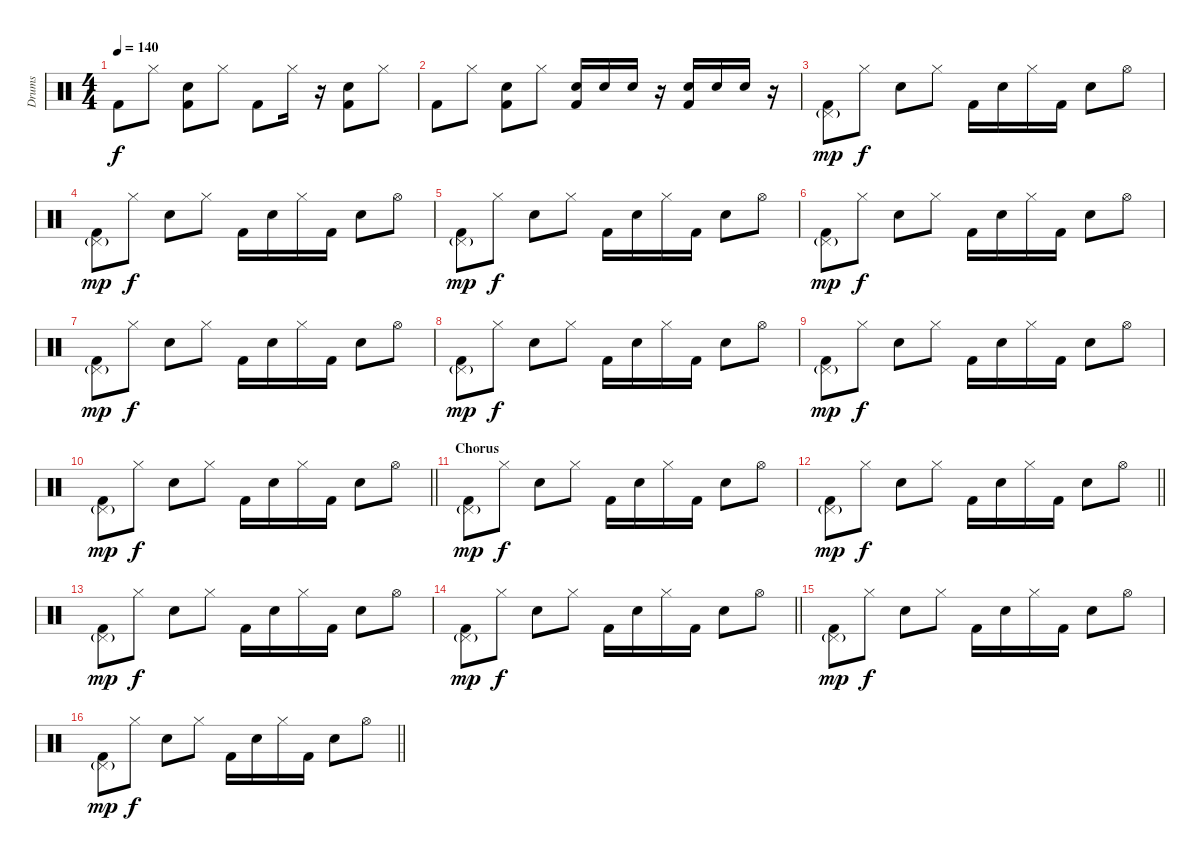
\track ("Drums" "Drums") {instrument percussion}
\staff {score}
\articulation defaults
\ts (4 4)
\tempo 140
\clef neutral
\ks c "Kick (hit) 2".8{dy f} "Hi-Hat (closed)".8
("Snare (hit) 2" "Kick (hit) 2").8 "Hi-Hat (closed)".8 "Kick (hit) 2".8 "Hi-Hat (closed)".16 r.16 ("Snare (hit) 2" "Kick (hit) 2").8 "Hi-Hat (closed)".8 |
"Kick (hit) 2".8 "Hi-Hat (closed)".8 ("Snare (hit) 2" "Kick (hit) 2").8 "Hi-Hat (closed)".8 ("Snare (hit) 2" "Kick (hit) 2").16 "Snare (hit) 2".16 "Snare (hit) 2".16 r.16 ("Snare (hit) 2" "Kick (hit) 2").16 "Snare (hit) 2".16 "Snare (hit) 2".16 r.16 |
("Pedal Hi-Hat (hit)"{g} "Kick (hit) 2").8{dy mp} "Hi-Hat (closed)".8{dy f} "Snare (hit) 2".8 "Hi-Hat (closed)".8 "Kick (hit) 2".16 "Snare (hit) 2".16 "Hi-Hat (closed)".16 "Kick (hit) 2".16 "Snare (hit) 2".8 "Hi-Hat (open)".8 |
("Pedal Hi-Hat (hit)"{g} "Kick (hit) 2").8{dy mp} "Hi-Hat (closed)".8{dy f} "Snare (hit) 2".8 "Hi-Hat (closed)".8 "Kick (hit) 2".16 "Snare (hit) 2".16 "Hi-Hat (closed)".16 "Kick (hit) 2".16 "Snare (hit) 2".8 "Hi-Hat (open)".8 |
("Pedal Hi-Hat (hit)"{g} "Kick (hit) 2").8{dy mp} "Hi-Hat (closed)".8{dy f} "Snare (hit) 2".8 "Hi-Hat (closed)".8 "Kick (hit) 2".16 "Snare (hit) 2".16 "Hi-Hat (closed)".16 "Kick (hit) 2".16 "Snare (hit) 2".8 "Hi-Hat (open)".8 |
("Pedal Hi-Hat (hit)"{g} "Kick (hit) 2").8{dy mp} "Hi-Hat (closed)".8{dy f} "Snare (hit) 2".8 "Hi-Hat (closed)".8 "Kick (hit) 2".16 "Snare (hit) 2".16 "Hi-Hat (closed)".16 "Kick (hit) 2".16 "Snare (hit) 2".8 "Hi-Hat (open)".8 |
("Pedal Hi-Hat (hit)"{g} "Kick (hit) 2").8{dy mp} "Hi-Hat (closed)".8{dy f} "Snare (hit) 2".8 "Hi-Hat (closed)".8 "Kick (hit) 2".16 "Snare (hit) 2".16 "Hi-Hat (closed)".16 "Kick (hit) 2".16 "Snare (hit) 2".8 "Hi-Hat (open)".8 |
("Pedal Hi-Hat (hit)"{g} "Kick (hit) 2").8{dy mp} "Hi-Hat (closed)".8{dy f} "Snare (hit) 2".8 "Hi-Hat (closed)".8 "Kick (hit) 2".16 "Snare (hit) 2".16 "Hi-Hat (closed)".16 "Kick (hit) 2".16 "Snare (hit) 2".8 "Hi-Hat (open)".8 |
("Pedal Hi-Hat (hit)"{g} "Kick (hit) 2").8{dy mp} "Hi-Hat (closed)".8{dy f} "Snare (hit) 2".8 "Hi-Hat (closed)".8 "Kick (hit) 2".16 "Snare (hit) 2".16 "Hi-Hat (closed)".16 "Kick (hit) 2".16 "Snare (hit) 2".8 "Hi-Hat (open)".8 |
\barLineRight lightlight
("Pedal Hi-Hat (hit)"{g} "Kick (hit) 2").8{dy mp} "Hi-Hat (closed)".8{dy f} "Snare (hit) 2".8 "Hi-Hat (closed)".8 "Kick (hit) 2".16 "Snare (hit) 2".16 "Hi-Hat (closed)".16 "Kick (hit) 2".16 "Snare (hit) 2".8 "Hi-Hat (open)".8 |
\section ("" "Chorus")
("Pedal Hi-Hat (hit)"{g} "Kick (hit) 2").8{dy mp} "Hi-Hat (closed)".8{dy f} "Snare (hit) 2".8 "Hi-Hat (closed)".8 "Kick (hit) 2".16 "Snare (hit) 2".16 "Hi-Hat (closed)".16 "Kick (hit) 2".16 "Snare (hit) 2".8 "Hi-Hat (open)".8 |
\barLineRight lightlight
("Pedal Hi-Hat (hit)"{g} "Kick (hit) 2").8{dy mp} "Hi-Hat (closed)".8{dy f} "Snare (hit) 2".8 "Hi-Hat (closed)".8 "Kick (hit) 2".16 "Snare (hit) 2".16 "Hi-Hat (closed)".16 "Kick (hit) 2".16 "Snare (hit) 2".8 "Hi-Hat (open)".8 |
("Pedal Hi-Hat (hit)"{g} "Kick (hit) 2").8{dy mp} "Hi-Hat (closed)".8{dy f} "Snare (hit) 2".8 "Hi-Hat (closed)".8 "Kick (hit) 2".16 "Snare (hit) 2".16 "Hi-Hat (closed)".16 "Kick (hit) 2".16 "Snare (hit) 2".8 "Hi-Hat (open)".8 |
\barLineRight lightlight
("Pedal Hi-Hat (hit)"{g} "Kick (hit) 2").8{dy mp} "Hi-Hat (closed)".8{dy f} "Snare (hit) 2".8 "Hi-Hat (closed)".8 "Kick (hit) 2".16 "Snare (hit) 2".16 "Hi-Hat (closed)".16 "Kick (hit) 2".16 "Snare (hit) 2".8 "Hi-Hat (open)".8 |
("Pedal Hi-Hat (hit)"{g} "Kick (hit) 2").8{dy mp} "Hi-Hat (closed)".8{dy f} "Snare (hit) 2".8 "Hi-Hat (closed)".8 "Kick (hit) 2".16 "Snare (hit) 2".16 "Hi-Hat (closed)".16 "Kick (hit) 2".16 "Snare (hit) 2".8 "Hi-Hat (open)".8 |
\barLineRight lightlight
("Pedal Hi-Hat (hit)"{g} "Kick (hit) 2").8{dy mp} "Hi-Hat (closed)".8{dy f} "Snare (hit) 2".8 "Hi-Hat (closed)".8 "Kick (hit) 2".16 "Snare (hit) 2".16 "Hi-Hat (closed)".16 "Kick (hit) 2".16 "Snare (hit) 2".8 "Hi-Hat (open)".8
